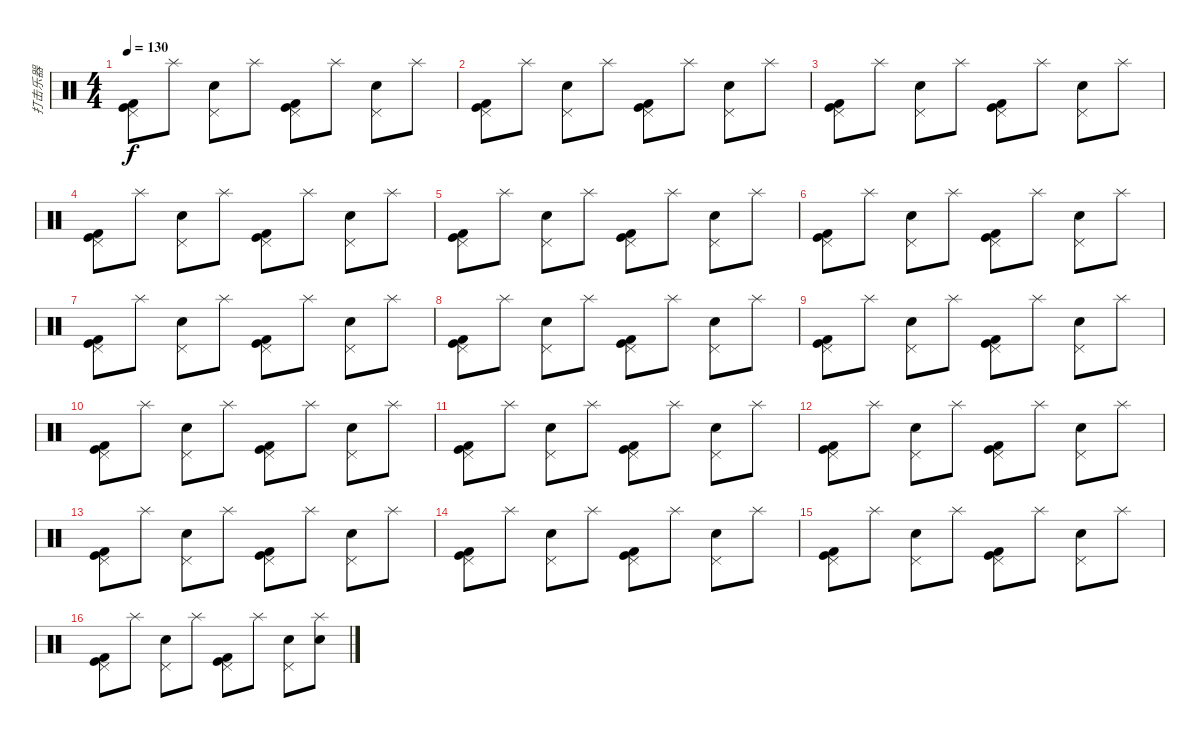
\track ("打击乐器" "打击乐器") {instrument percussion}
\staff {score}
\articulation defaults
\ts (4 4)
\tempo 130
\clef neutral
\ks c
("Pedal Hi-Hat (hit)" "Kick (hit)" "Kick (hit) 2").8{dy f} "Splash (hit)".8 ("Pedal Hi-Hat (hit)" "Snare (hit) 2").8 "Splash (hit)".8 ("Pedal Hi-Hat (hit)" "Kick (hit)" "Kick (hit) 2").8 "Splash (hit)".8 ("Pedal Hi-Hat (hit)" "Snare (hit) 2").8 "Splash (hit)".8 |
("Pedal Hi-Hat (hit)" "Kick (hit)" "Kick (hit) 2").8 "Splash (hit)".8 ("Pedal Hi-Hat (hit)" "Snare (hit) 2").8 "Splash (hit)".8 ("Pedal Hi-Hat (hit)" "Kick (hit)" "Kick (hit) 2").8 "Splash (hit)".8 ("Pedal Hi-Hat (hit)" "Snare (hit) 2").8 "Splash (hit)".8 |
("Pedal Hi-Hat (hit)" "Kick (hit)" "Kick (hit) 2").8 "Splash (hit)".8 ("Pedal Hi-Hat (hit)" "Snare (hit) 2").8 "Splash (hit)".8 ("Pedal Hi-Hat (hit)" "Kick (hit)" "Kick (hit) 2").8 "Splash (hit)".8 ("Pedal Hi-Hat (hit)" "Snare (hit) 2").8 "Splash (hit)".8 |
("Pedal Hi-Hat (hit)" "Kick (hit)" "Kick (hit) 2").8 "Splash (hit)".8 ("Pedal Hi-Hat (hit)" "Snare (hit) 2").8 "Splash (hit)".8 ("Pedal Hi-Hat (hit)" "Kick (hit)" "Kick (hit) 2").8 "Splash (hit)".8 ("Pedal Hi-Hat (hit)" "Snare (hit) 2").8 "Splash (hit)".8 |
("Pedal Hi-Hat (hit)" "Kick (hit)" "Kick (hit) 2").8 "Splash (hit)".8 ("Pedal Hi-Hat (hit)" "Snare (hit) 2").8 "Splash (hit)".8 ("Pedal Hi-Hat (hit)" "Kick (hit)" "Kick (hit) 2").8 "Splash (hit)".8 ("Pedal Hi-Hat (hit)" "Snare (hit) 2").8 "Splash (hit)".8 |
("Pedal Hi-Hat (hit)" "Kick (hit)" "Kick (hit) 2").8 "Splash (hit)".8 ("Pedal Hi-Hat (hit)" "Snare (hit) 2").8 "Splash (hit)".8 ("Pedal Hi-Hat (hit)" "Kick (hit)" "Kick (hit) 2").8 "Splash (hit)".8 ("Pedal Hi-Hat (hit)" "Snare (hit) 2").8 "Splash (hit)".8 |
("Pedal Hi-Hat (hit)" "Kick (hit)" "Kick (hit) 2").8 "Splash (hit)".8 ("Pedal Hi-Hat (hit)" "Snare (hit) 2").8 "Splash (hit)".8 ("Pedal Hi-Hat (hit)" "Kick (hit)" "Kick (hit) 2").8 "Splash (hit)".8 ("Pedal Hi-Hat (hit)" "Snare (hit) 2").8 "Splash (hit)".8 |
("Pedal Hi-Hat (hit)" "Kick (hit)" "Kick (hit) 2").8 "Splash (hit)".8 ("Pedal Hi-Hat (hit)" "Snare (hit) 2").8 "Splash (hit)".8 ("Pedal Hi-Hat (hit)" "Kick (hit)" "Kick (hit) 2").8 "Splash (hit)".8 ("Pedal Hi-Hat (hit)" "Snare (hit) 2").8 "Splash (hit)".8 |
("Pedal Hi-Hat (hit)" "Kick (hit)" "Kick (hit) 2").8 "Splash (hit)".8 ("Pedal Hi-Hat (hit)" "Snare (hit) 2").8 "Splash (hit)".8 ("Pedal Hi-Hat (hit)" "Kick (hit)" "Kick (hit) 2").8 "Splash (hit)".8 ("Pedal Hi-Hat (hit)" "Snare (hit) 2").8 "Splash (hit)".8 |
("Pedal Hi-Hat (hit)" "Kick (hit)" "Kick (hit) 2").8 "Splash (hit)".8 ("Pedal Hi-Hat (hit)" "Snare (hit) 2").8 "Splash (hit)".8 ("Pedal Hi-Hat (hit)" "Kick (hit)" "Kick (hit) 2").8 "Splash (hit)".8 ("Pedal Hi-Hat (hit)" "Snare (hit) 2").8 "Splash (hit)".8 |
("Pedal Hi-Hat (hit)" "Kick (hit)" "Kick (hit) 2").8 "Splash (hit)".8 ("Pedal Hi-Hat (hit)" "Snare (hit) 2").8 "Splash (hit)".8 ("Pedal Hi-Hat (hit)" "Kick (hit)" "Kick (hit) 2").8 "Splash (hit)".8 ("Pedal Hi-Hat (hit)" "Snare (hit) 2").8 "Splash (hit)".8 |
("Pedal Hi-Hat (hit)" "Kick (hit)" "Kick (hit) 2").8 "Splash (hit)".8 ("Pedal Hi-Hat (hit)" "Snare (hit) 2").8 "Splash (hit)".8 ("Pedal Hi-Hat (hit)" "Kick (hit)" "Kick (hit) 2").8 "Splash (hit)".8 ("Pedal Hi-Hat (hit)" "Snare (hit) 2").8 "Splash (hit)".8 |
("Pedal Hi-Hat (hit)" "Kick (hit)" "Kick (hit) 2").8 "Splash (hit)".8 ("Pedal Hi-Hat (hit)" "Snare (hit) 2").8 "Splash (hit)".8 ("Pedal Hi-Hat (hit)" "Kick (hit)" "Kick (hit) 2").8 "Splash (hit)".8 ("Pedal Hi-Hat (hit)" "Snare (hit) 2").8 "Splash (hit)".8 |
("Pedal Hi-Hat (hit)" "Kick (hit)" "Kick (hit) 2").8 "Splash (hit)".8 ("Pedal Hi-Hat (hit)" "Snare (hit) 2").8 "Splash (hit)".8 ("Pedal Hi-Hat (hit)" "Kick (hit)" "Kick (hit) 2").8 "Splash (hit)".8 ("Pedal Hi-Hat (hit)" "Snare (hit) 2").8 "Splash (hit)".8 |
("Pedal Hi-Hat (hit)" "Kick (hit)" "Kick (hit) 2").8 "Splash (hit)".8 ("Pedal Hi-Hat (hit)" "Snare (hit) 2").8 "Splash (hit)".8 ("Pedal Hi-Hat (hit)" "Kick (hit)" "Kick (hit) 2").8 "Splash (hit)".8 ("Pedal Hi-Hat (hit)" "Snare (hit) 2").8 "Splash (hit)".8 |
("Pedal Hi-Hat (hit)" "Kick (hit)" "Kick (hit) 2").8 "Splash (hit)".8 ("Pedal Hi-Hat (hit)" "Snare (hit) 2").8 "Splash (hit)".8 ("Pedal Hi-Hat (hit)" "Kick (hit)" "Kick (hit) 2").8 "Splash (hit)".8 ("Pedal Hi-Hat (hit)" "Snare (hit) 2").8 ("Splash (hit)" "Electric Snare (hit)").8
